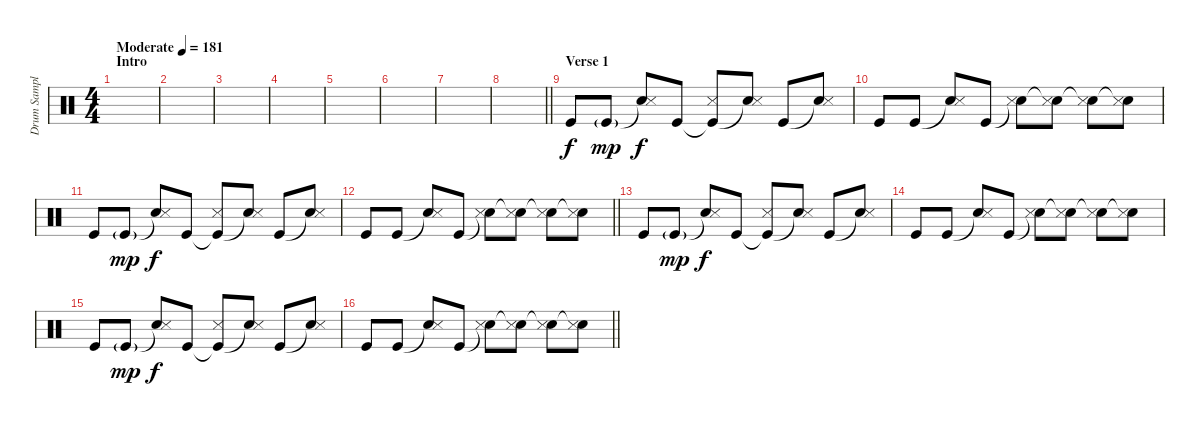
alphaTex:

\track ("Drum Sample" "Drum Sampl") {instrument percussion}
\staff {score}
\articulation defaults
\ts (4 4)
\section ("" "Intro")
\tempo (181 "Moderate")
\clef neutral
\ks c
|
|
|
|
|
|
|
\barLineRight lightlight
|
\section ("" "Verse 1")
"Kick (hit)".8 "Kick (hit)"{g}.8{dy mp} ("Snare (hit)"{t} "Snare (side stick) 3").8{dy f} "Kick (hit)".8 ("Kick (hit)"{t} "Metronome (hit)").8 ("Snare (hit)"{t} "Snare (side stick) 3").8 "Kick (hit)".8 ("Snare (hit)"{t} "Snare (side stick) 3").8 |
"Kick (hit)".8 "Kick (hit)".8 ("Snare (hit)"{t} "Snare (side stick) 3").8 "Kick (hit)".8 ("Snare (hit)"{t} "Metronome (hit)").8 ("Snare (hit)"{t} "Metronome (hit)").8 ("Snare (hit)"{t} "Snare (side stick) 3").8 ("Snare (hit)"{t} "Snare (side stick) 3").8 |
"Kick (hit)".8 "Kick (hit)"{g}.8{dy mp} ("Snare (hit)"{t} "Snare (side stick) 3").8{dy f} "Kick (hit)".8 ("Kick (hit)"{t} "Metronome (hit)").8 ("Snare (hit)"{t} "Snare (side stick) 3").8 "Kick (hit)".8 ("Snare (hit)"{t} "Snare (side stick) 3").8 |
\barLineRight lightlight "Kick (hit)".8 "Kick (hit)".8
("Snare (hit)"{t} "Snare (side stick) 3").8 "Kick (hit)".8 ("Snare (hit)"{t} "Metronome (hit)").8 ("Snare (hit)"{t} "Metronome (hit)").8 ("Snare (hit)"{t} "Snare (side stick) 3").8 ("Snare (hit)"{t} "Snare (side stick) 3").8 |
"Kick (hit)".8 "Kick (hit)"{g}.8{dy mp} ("Snare (hit)"{t} "Snare (side stick) 3").8{dy f} "Kick (hit)".8 ("Kick (hit)"{t} "Metronome (hit)").8 ("Snare (hit)"{t} "Snare (side stick) 3").8 "Kick (hit)".8 ("Snare (hit)"{t} "Snare (side stick) 3").8 |
"Kick (hit)".8 "Kick (hit)".8 ("Snare (hit)"{t} "Snare (side stick) 3").8 "Kick (hit)".8 ("Snare (hit)"{t} "Metronome (hit)").8 ("Snare (hit)"{t} "Metronome (hit)").8 ("Snare (hit)"{t} "Snare (side stick) 3").8 ("Snare (hit)"{t} "Snare (side stick) 3").8 |
"Kick (hit)".8 "Kick (hit)"{g}.8{dy mp} ("Snare (hit)"{t} "Snare (side stick) 3").8{dy f} "Kick (hit)".8 ("Kick (hit)"{t} "Metronome (hit)").8 ("Snare (hit)"{t} "Snare (side stick) 3").8 "Kick (hit)".8 ("Snare (hit)"{t} "Snare (side stick) 3").8 |
\barLineRight lightlight "Kick (hit)".8 "Kick (hit)".8
("Snare (hit)"{t} "Snare (side stick) 3").8 "Kick (hit)".8 ("Snare (hit)"{t} "Metronome (hit)").8 ("Snare (hit)"{t} "Metronome (hit)").8 ("Snare (hit)"{t} "Snare (side stick) 3").8 ("Snare (hit)"{t} "Snare (side stick) 3").8
